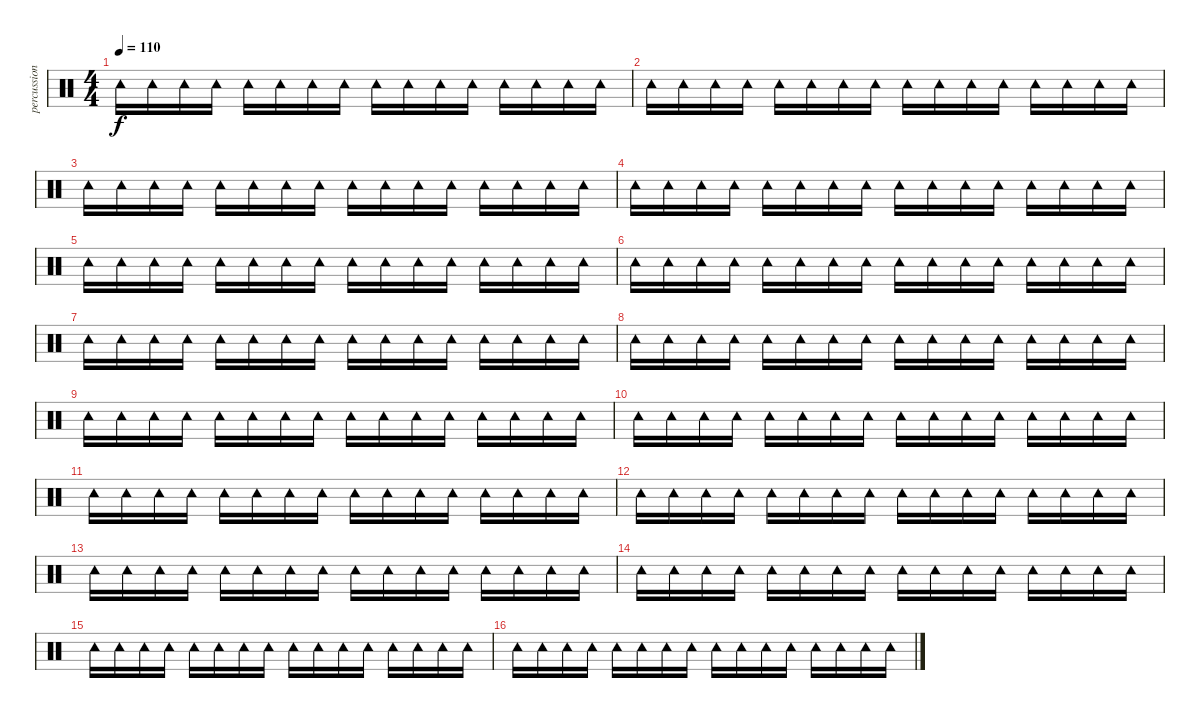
\track ("percussioni" "percussion") {instrument percussion}
\staff {score}
\articulation defaults
\ts (4 4)
\tempo 110
\clef neutral
\ks c "Tambourine (hit)".16{dy f} "Tambourine (hit)".16 "Tambourine (hit)".16 "Tambourine (hit)".16 "Tambourine (hit)".16 "Tambourine (hit)".16 "Tambourine (hit)".16 "Tambourine (hit)".16 "Tambourine (hit)".16 "Tambourine (hit)".16 "Tambourine (hit)".16 "Tambourine (hit)".16 "Tambourine (hit)".16 "Tambourine (hit)".16 "Tambourine (hit)".16 "Tambourine (hit)".16
|
"Tambourine (hit)".16 "Tambourine (hit)".16 "Tambourine (hit)".16 "Tambourine (hit)".16 "Tambourine (hit)".16 "Tambourine (hit)".16 "Tambourine (hit)".16 "Tambourine (hit)".16 "Tambourine (hit)".16 "Tambourine (hit)".16 "Tambourine (hit)".16 "Tambourine (hit)".16 "Tambourine (hit)".16 "Tambourine (hit)".16 "Tambourine (hit)".16 "Tambourine (hit)".16 |
"Tambourine (hit)".16 "Tambourine (hit)".16 "Tambourine (hit)".16 "Tambourine (hit)".16 "Tambourine (hit)".16 "Tambourine (hit)".16 "Tambourine (hit)".16 "Tambourine (hit)".16 "Tambourine (hit)".16 "Tambourine (hit)".16 "Tambourine (hit)".16 "Tambourine (hit)".16 "Tambourine (hit)".16 "Tambourine (hit)".16 "Tambourine (hit)".16 "Tambourine (hit)".16 |
"Tambourine (hit)".16 "Tambourine (hit)".16 "Tambourine (hit)".16 "Tambourine (hit)".16 "Tambourine (hit)".16 "Tambourine (hit)".16 "Tambourine (hit)".16 "Tambourine (hit)".16 "Tambourine (hit)".16 "Tambourine (hit)".16 "Tambourine (hit)".16 "Tambourine (hit)".16 "Tambourine (hit)".16 "Tambourine (hit)".16 "Tambourine (hit)".16 "Tambourine (hit)".16 |
"Tambourine (hit)".16 "Tambourine (hit)".16 "Tambourine (hit)".16 "Tambourine (hit)".16 "Tambourine (hit)".16 "Tambourine (hit)".16 "Tambourine (hit)".16 "Tambourine (hit)".16 "Tambourine (hit)".16 "Tambourine (hit)".16 "Tambourine (hit)".16 "Tambourine (hit)".16 "Tambourine (hit)".16 "Tambourine (hit)".16 "Tambourine (hit)".16 "Tambourine (hit)".16 |
"Tambourine (hit)".16 "Tambourine (hit)".16 "Tambourine (hit)".16 "Tambourine (hit)".16 "Tambourine (hit)".16 "Tambourine (hit)".16 "Tambourine (hit)".16 "Tambourine (hit)".16 "Tambourine (hit)".16 "Tambourine (hit)".16 "Tambourine (hit)".16 "Tambourine (hit)".16 "Tambourine (hit)".16 "Tambourine (hit)".16 "Tambourine (hit)".16 "Tambourine (hit)".16 |
"Tambourine (hit)".16 "Tambourine (hit)".16 "Tambourine (hit)".16 "Tambourine (hit)".16 "Tambourine (hit)".16 "Tambourine (hit)".16 "Tambourine (hit)".16 "Tambourine (hit)".16 "Tambourine (hit)".16 "Tambourine (hit)".16 "Tambourine (hit)".16 "Tambourine (hit)".16 "Tambourine (hit)".16 "Tambourine (hit)".16 "Tambourine (hit)".16 "Tambourine (hit)".16 |
"Tambourine (hit)".16 "Tambourine (hit)".16 "Tambourine (hit)".16 "Tambourine (hit)".16 "Tambourine (hit)".16 "Tambourine (hit)".16 "Tambourine (hit)".16 "Tambourine (hit)".16 "Tambourine (hit)".16 "Tambourine (hit)".16 "Tambourine (hit)".16 "Tambourine (hit)".16 "Tambourine (hit)".16 "Tambourine (hit)".16 "Tambourine (hit)".16 "Tambourine (hit)".16 |
"Tambourine (hit)".16 "Tambourine (hit)".16 "Tambourine (hit)".16 "Tambourine (hit)".16 "Tambourine (hit)".16 "Tambourine (hit)".16 "Tambourine (hit)".16 "Tambourine (hit)".16 "Tambourine (hit)".16 "Tambourine (hit)".16 "Tambourine (hit)".16 "Tambourine (hit)".16 "Tambourine (hit)".16 "Tambourine (hit)".16 "Tambourine (hit)".16 "Tambourine (hit)".16 |
"Tambourine (hit)".16 "Tambourine (hit)".16 "Tambourine (hit)".16 "Tambourine (hit)".16 "Tambourine (hit)".16 "Tambourine (hit)".16 "Tambourine (hit)".16 "Tambourine (hit)".16 "Tambourine (hit)".16 "Tambourine (hit)".16 "Tambourine (hit)".16 "Tambourine (hit)".16 "Tambourine (hit)".16 "Tambourine (hit)".16 "Tambourine (hit)".16 "Tambourine (hit)".16 |
"Tambourine (hit)".16 "Tambourine (hit)".16 "Tambourine (hit)".16 "Tambourine (hit)".16 "Tambourine (hit)".16 "Tambourine (hit)".16 "Tambourine (hit)".16 "Tambourine (hit)".16 "Tambourine (hit)".16 "Tambourine (hit)".16 "Tambourine (hit)".16 "Tambourine (hit)".16 "Tambourine (hit)".16 "Tambourine (hit)".16 "Tambourine (hit)".16 "Tambourine (hit)".16 |
"Tambourine (hit)".16 "Tambourine (hit)".16 "Tambourine (hit)".16 "Tambourine (hit)".16 "Tambourine (hit)".16 "Tambourine (hit)".16 "Tambourine (hit)".16 "Tambourine (hit)".16 "Tambourine (hit)".16 "Tambourine (hit)".16 "Tambourine (hit)".16 "Tambourine (hit)".16 "Tambourine (hit)".16 "Tambourine (hit)".16 "Tambourine (hit)".16 "Tambourine (hit)".16 |
"Tambourine (hit)".16 "Tambourine (hit)".16 "Tambourine (hit)".16 "Tambourine (hit)".16 "Tambourine (hit)".16 "Tambourine (hit)".16 "Tambourine (hit)".16 "Tambourine (hit)".16 "Tambourine (hit)".16 "Tambourine (hit)".16 "Tambourine (hit)".16 "Tambourine (hit)".16 "Tambourine (hit)".16 "Tambourine (hit)".16 "Tambourine (hit)".16 "Tambourine (hit)".16 |
"Tambourine (hit)".16 "Tambourine (hit)".16 "Tambourine (hit)".16 "Tambourine (hit)".16 "Tambourine (hit)".16 "Tambourine (hit)".16 "Tambourine (hit)".16 "Tambourine (hit)".16 "Tambourine (hit)".16 "Tambourine (hit)".16 "Tambourine (hit)".16 "Tambourine (hit)".16 "Tambourine (hit)".16 "Tambourine (hit)".16 "Tambourine (hit)".16 "Tambourine (hit)".16 |
"Tambourine (hit)".16 "Tambourine (hit)".16 "Tambourine (hit)".16 "Tambourine (hit)".16 "Tambourine (hit)".16 "Tambourine (hit)".16 "Tambourine (hit)".16 "Tambourine (hit)".16 "Tambourine (hit)".16 "Tambourine (hit)".16 "Tambourine (hit)".16 "Tambourine (hit)".16 "Tambourine (hit)".16 "Tambourine (hit)".16 "Tambourine (hit)".16 "Tambourine (hit)".16 |
"Tambourine (hit)".16 "Tambourine (hit)".16 "Tambourine (hit)".16 "Tambourine (hit)".16 "Tambourine (hit)".16 "Tambourine (hit)".16 "Tambourine (hit)".16 "Tambourine (hit)".16 "Tambourine (hit)".16 "Tambourine (hit)".16 "Tambourine (hit)".16 "Tambourine (hit)".16 "Tambourine (hit)".16 "Tambourine (hit)".16 "Tambourine (hit)".16 "Tambourine (hit)".16
